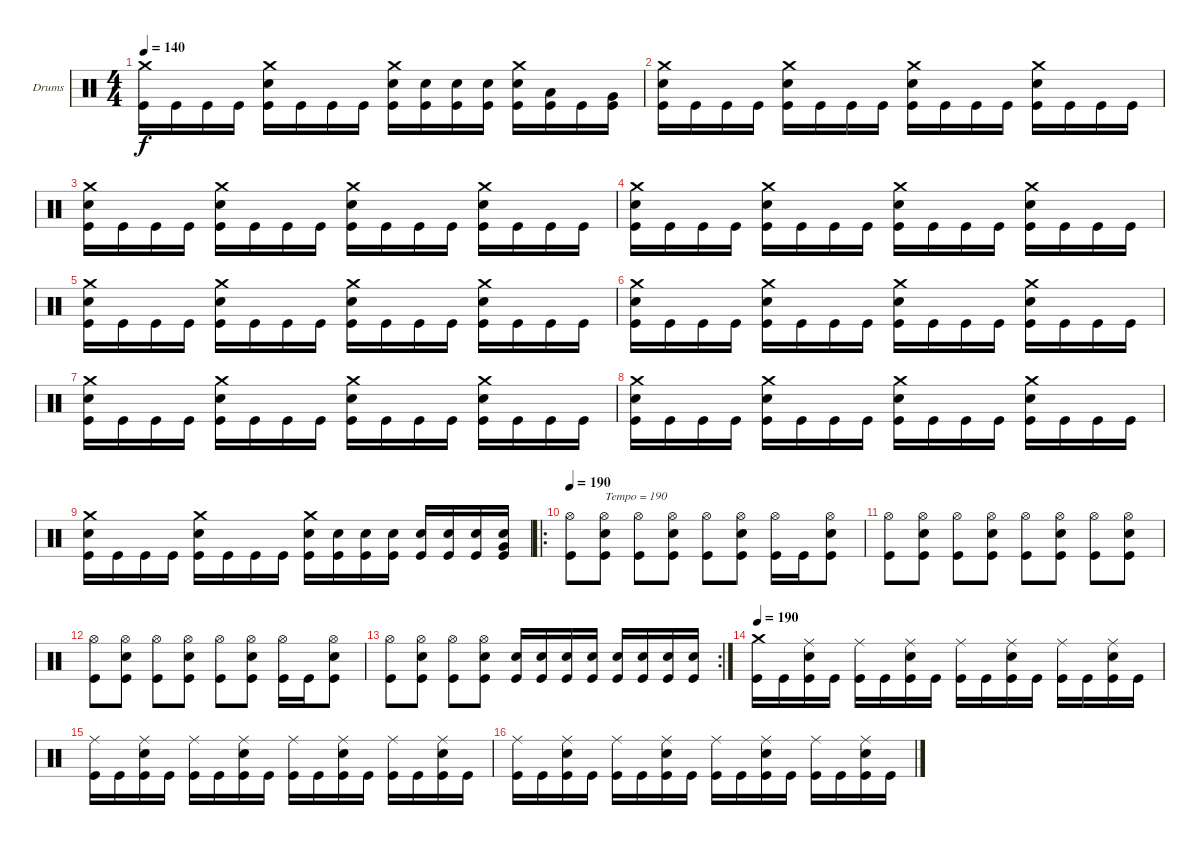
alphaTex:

\bracketExtendMode groupsimilarinstruments
\firstSystemTrackNameOrientation horizontal
\otherSystemsTrackNameOrientation horizontal
\track ("Drumkit" "Drums") {instrument percussion}
\staff {score}
\articulation defaults
\ts (4 4)
\tempo 140
\clef neutral
\ks c
("Crash medium (hit)" "Kick (hit)").16{dy f} "Kick (hit)".16 "Kick (hit)".16 "Kick (hit)".16 ("Crash medium (hit)" "Snare (hit) 2" "Kick (hit)").16 "Kick (hit)".16 "Kick (hit)".16 "Kick (hit)".16 ("Crash medium (hit)" "Snare (hit) 2" "Kick (hit)").16 ("Snare (hit) 2" "Kick (hit)").16 ("Snare (hit) 2" "Kick (hit)").16 ("Snare (hit) 2" "Kick (hit)").16 ("Crash medium (hit)" "Snare (hit) 2" "Kick (hit)").16 ("Low Tom (hit)" "Kick (hit)").16 "Kick (hit)".16 ("Very Low Tom (hit)" "Kick (hit)").16 |
("Crash medium (hit)" "Snare (hit) 2" "Kick (hit)").16 "Kick (hit)".16 "Kick (hit)".16 "Kick (hit)".16 ("Crash medium (hit)" "Snare (hit) 2" "Kick (hit)").16 "Kick (hit)".16 "Kick (hit)".16 "Kick (hit)".16 ("Crash medium (hit)" "Snare (hit) 2" "Kick (hit)").16 "Kick (hit)".16 "Kick (hit)".16 "Kick (hit)".16 ("Crash medium (hit)" "Snare (hit) 2" "Kick (hit)").16 "Kick (hit)".16 "Kick (hit)".16 "Kick (hit)".16 |
("Crash medium (hit)" "Snare (hit) 2" "Kick (hit)").16 "Kick (hit)".16 "Kick (hit)".16 "Kick (hit)".16 ("Crash medium (hit)" "Snare (hit) 2" "Kick (hit)").16 "Kick (hit)".16 "Kick (hit)".16 "Kick (hit)".16 ("Crash medium (hit)" "Snare (hit) 2" "Kick (hit)").16 "Kick (hit)".16 "Kick (hit)".16 "Kick (hit)".16 ("Crash medium (hit)" "Snare (hit) 2" "Kick (hit)").16 "Kick (hit)".16 "Kick (hit)".16 "Kick (hit)".16 |
("Crash medium (hit)" "Snare (hit) 2" "Kick (hit)").16 "Kick (hit)".16 "Kick (hit)".16 "Kick (hit)".16 ("Crash medium (hit)" "Snare (hit) 2" "Kick (hit)").16 "Kick (hit)".16 "Kick (hit)".16 "Kick (hit)".16 ("Crash medium (hit)" "Snare (hit) 2" "Kick (hit)").16 "Kick (hit)".16 "Kick (hit)".16 "Kick (hit)".16 ("Crash medium (hit)" "Snare (hit) 2" "Kick (hit)").16 "Kick (hit)".16 "Kick (hit)".16 "Kick (hit)".16 |
("Crash medium (hit)" "Snare (hit) 2" "Kick (hit)").16 "Kick (hit)".16 "Kick (hit)".16 "Kick (hit)".16 ("Crash medium (hit)" "Snare (hit) 2" "Kick (hit)").16 "Kick (hit)".16 "Kick (hit)".16 "Kick (hit)".16 ("Crash medium (hit)" "Snare (hit) 2" "Kick (hit)").16 "Kick (hit)".16 "Kick (hit)".16 "Kick (hit)".16 ("Crash medium (hit)" "Snare (hit) 2" "Kick (hit)").16 "Kick (hit)".16 "Kick (hit)".16 "Kick (hit)".16 |
("Crash medium (hit)" "Snare (hit) 2" "Kick (hit)").16 "Kick (hit)".16 "Kick (hit)".16 "Kick (hit)".16 ("Crash medium (hit)" "Snare (hit) 2" "Kick (hit)").16 "Kick (hit)".16 "Kick (hit)".16 "Kick (hit)".16 ("Crash medium (hit)" "Snare (hit) 2" "Kick (hit)").16 "Kick (hit)".16 "Kick (hit)".16 "Kick (hit)".16 ("Crash medium (hit)" "Snare (hit) 2" "Kick (hit)").16 "Kick (hit)".16 "Kick (hit)".16 "Kick (hit)".16 |
("Crash medium (hit)" "Snare (hit) 2" "Kick (hit)").16 "Kick (hit)".16 "Kick (hit)".16 "Kick (hit)".16 ("Crash medium (hit)" "Snare (hit) 2" "Kick (hit)").16 "Kick (hit)".16 "Kick (hit)".16 "Kick (hit)".16 ("Crash medium (hit)" "Snare (hit) 2" "Kick (hit)").16 "Kick (hit)".16 "Kick (hit)".16 "Kick (hit)".16 ("Crash medium (hit)" "Snare (hit) 2" "Kick (hit)").16 "Kick (hit)".16 "Kick (hit)".16 "Kick (hit)".16 |
("Crash medium (hit)" "Snare (hit) 2" "Kick (hit)").16 "Kick (hit)".16 "Kick (hit)".16 "Kick (hit)".16 ("Crash medium (hit)" "Snare (hit) 2" "Kick (hit)").16 "Kick (hit)".16 "Kick (hit)".16 "Kick (hit)".16 ("Crash medium (hit)" "Snare (hit) 2" "Kick (hit)").16 "Kick (hit)".16 "Kick (hit)".16 "Kick (hit)".16 ("Crash medium (hit)" "Snare (hit) 2" "Kick (hit)").16 "Kick (hit)".16 "Kick (hit)".16 "Kick (hit)".16 |
("Crash medium (hit)" "Snare (hit) 2" "Kick (hit)").16 "Kick (hit)".16 "Kick (hit)".16 "Kick (hit)".16 ("Crash medium (hit)" "Snare (hit) 2" "Kick (hit)").16 "Kick (hit)".16 "Kick (hit)".16 "Kick (hit)".16 ("Crash medium (hit)" "Snare (hit) 2" "Kick (hit)").16 ("Snare (hit) 2" "Kick (hit)").16 ("Snare (hit) 2" "Kick (hit)").16 ("Snare (hit) 2" "Kick (hit)").16 ("Snare (hit) 2" "Kick (hit)").16 ("Snare (hit) 2" "Kick (hit)").16 ("Snare (hit) 2" "Kick (hit)").16 ("Snare (hit) 2" "Very Low Tom (hit)" "Kick (hit)").16 |
\ro
\tempo 190
("Hi-Hat (open)" "Kick (hit)").8 ("Hi-Hat (open)" "Snare (hit) 2" "Kick (hit)").8{txt "Tempo = 190"} ("Hi-Hat (open)" "Kick (hit)").8 ("Hi-Hat (open)" "Snare (hit) 2" "Kick (hit)").8 ("Hi-Hat (open)" "Kick (hit)").8 ("Hi-Hat (open)" "Snare (hit) 2" "Kick (hit)").8 ("Hi-Hat (open)" "Kick (hit)").16 "Kick (hit)".16 ("Hi-Hat (open)" "Snare (hit) 2" "Kick (hit)").8 |
("Hi-Hat (open)" "Kick (hit)").8 ("Hi-Hat (open)" "Snare (hit) 2" "Kick (hit)").8 ("Hi-Hat (open)" "Kick (hit)").8 ("Hi-Hat (open)" "Snare (hit) 2" "Kick (hit)").8 ("Hi-Hat (open)" "Kick (hit)").8 ("Hi-Hat (open)" "Snare (hit) 2" "Kick (hit)").8 ("Hi-Hat (open)" "Kick (hit)").8 ("Hi-Hat (open)" "Snare (hit) 2" "Kick (hit)").8 |
("Hi-Hat (open)" "Kick (hit)").8 ("Hi-Hat (open)" "Snare (hit) 2" "Kick (hit)").8 ("Hi-Hat (open)" "Kick (hit)").8 ("Hi-Hat (open)" "Snare (hit) 2" "Kick (hit)").8 ("Hi-Hat (open)" "Kick (hit)").8 ("Hi-Hat (open)" "Snare (hit) 2" "Kick (hit)").8 ("Hi-Hat (open)" "Kick (hit)").16 "Kick (hit)".16 ("Hi-Hat (open)" "Snare (hit) 2" "Kick (hit)").8 |
\rc 2
("Hi-Hat (open)" "Kick (hit)").8 ("Hi-Hat (open)" "Snare (hit) 2" "Kick (hit)").8 ("Hi-Hat (open)" "Kick (hit)").8 ("Hi-Hat (open)" "Snare (hit) 2" "Kick (hit)").8 ("Snare (hit) 2" "Kick (hit)").16 ("Snare (hit) 2" "Kick (hit)").16 ("Snare (hit) 2" "Kick (hit)").16 ("Snare (hit) 2" "Kick (hit)").16 ("Snare (hit) 2" "Kick (hit)").16 ("Snare (hit) 2" "Kick (hit)").16 ("Snare (hit) 2" "Kick (hit)").16 ("Snare (hit) 2" "Kick (hit)").16 |
\tempo 190
("Crash medium (hit)" "Kick (hit)").16 "Kick (hit)".16 ("Ride (middle)" "Snare (hit) 2" "Kick (hit)").16 "Kick (hit)".16 ("Ride (middle)" "Kick (hit)").16 "Kick (hit)".16 ("Ride (middle)" "Snare (hit) 2" "Kick (hit)").16 "Kick (hit)".16 ("Ride (middle)" "Kick (hit)").16 "Kick (hit)".16 ("Ride (middle)" "Snare (hit) 2" "Kick (hit)").16 "Kick (hit)".16 ("Ride (middle)" "Kick (hit)").16 "Kick (hit)".16 ("Ride (middle)" "Snare (hit) 2" "Kick (hit)").16 "Kick (hit)".16 |
("Ride (middle)" "Kick (hit)").16 "Kick (hit)".16 ("Ride (middle)" "Snare (hit) 2" "Kick (hit)").16 "Kick (hit)".16 ("Ride (middle)" "Kick (hit)").16 "Kick (hit)".16 ("Ride (middle)" "Snare (hit) 2" "Kick (hit)").16 "Kick (hit)".16 ("Ride (middle)" "Kick (hit)").16 "Kick (hit)".16 ("Ride (middle)" "Snare (hit) 2" "Kick (hit)").16 "Kick (hit)".16 ("Ride (middle)" "Kick (hit)").16 "Kick (hit)".16 ("Ride (middle)" "Snare (hit) 2" "Kick (hit)").16 "Kick (hit)".16 |
("Ride (middle)" "Kick (hit)").16 "Kick (hit)".16 ("Ride (middle)" "Snare (hit) 2" "Kick (hit)").16 "Kick (hit)".16 ("Ride (middle)" "Kick (hit)").16 "Kick (hit)".16 ("Ride (middle)" "Snare (hit) 2" "Kick (hit)").16 "Kick (hit)".16 ("Ride (middle)" "Kick (hit)").16 "Kick (hit)".16 ("Ride (middle)" "Snare (hit) 2" "Kick (hit)").16 "Kick (hit)".16 ("Ride (middle)" "Kick (hit)").16 "Kick (hit)".16 ("Ride (middle)" "Snare (hit) 2" "Kick (hit)").16 "Kick (hit)".16
